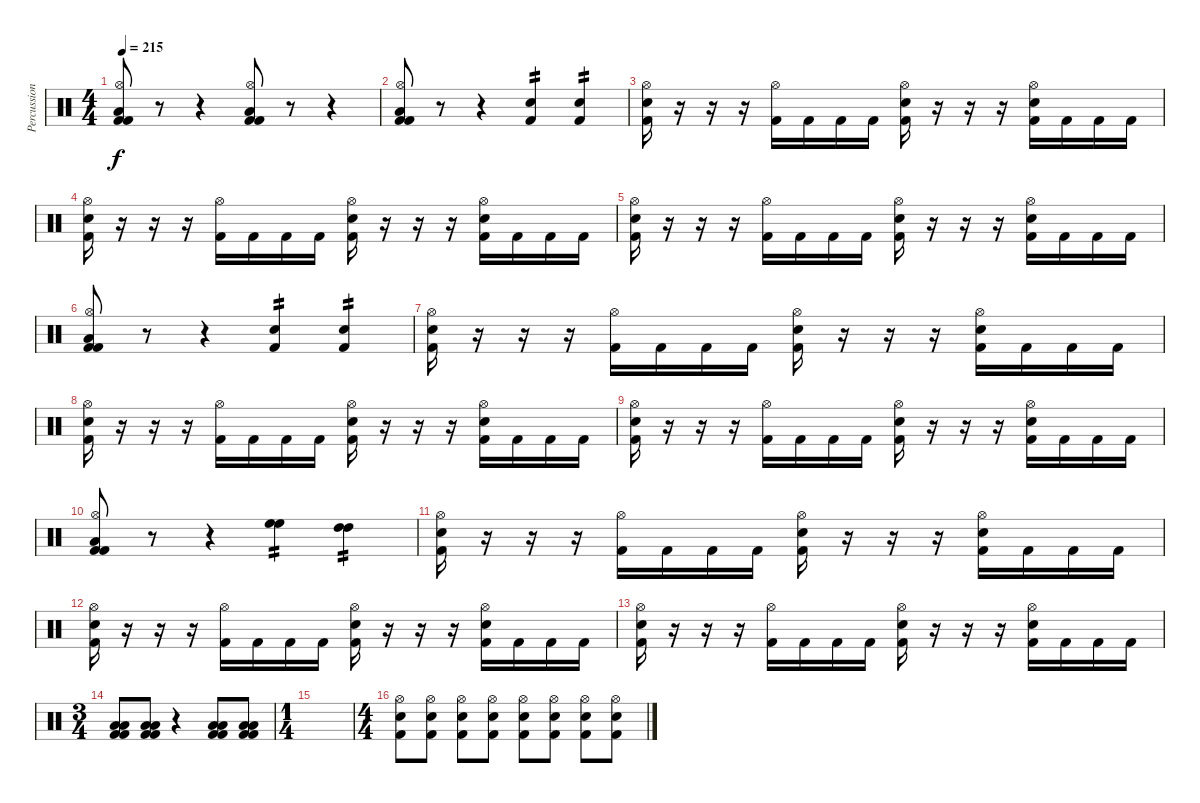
\track ("Percussion" "Percussion") {instrument percussion}
\staff {score}
\articulation defaults
\ts (4 4)
\tempo 215
\clef neutral
\ks c
("Low Floor Tom (hit)" "Hi-Hat (open)" "Kick (hit) 2" "Kick (hit) 2").8{dy f} r.8 r.4 ("Low Floor Tom (hit)" "Hi-Hat (open)" "Kick (hit) 2" "Kick (hit) 2").8 r.8 r.4 |
("Low Floor Tom (hit)" "Hi-Hat (open)" "Kick (hit) 2" "Kick (hit) 2").8 r.8 r.4 ("Electric Snare (hit)" "Kick (hit) 2").4{tp 2} ("Electric Snare (hit)" "Kick (hit) 2").4{tp 2} |
("Hi-Hat (open)" "Electric Snare (hit)" "Kick (hit) 2").16 r.16 r.16 r.16 ("Hi-Hat (open)" "Kick (hit) 2").16 "Kick (hit) 2".16 "Kick (hit) 2".16 "Kick (hit) 2".16 ("Hi-Hat (open)" "Electric Snare (hit)" "Kick (hit) 2").16 r.16 r.16 r.16 ("Hi-Hat (open)" "Electric Snare (hit)" "Kick (hit) 2").16 "Kick (hit) 2".16 "Kick (hit) 2".16 "Kick (hit) 2".16 |
("Hi-Hat (open)" "Electric Snare (hit)" "Kick (hit) 2").16 r.16 r.16 r.16 ("Hi-Hat (open)" "Kick (hit) 2").16 "Kick (hit) 2".16 "Kick (hit) 2".16 "Kick (hit) 2".16 ("Hi-Hat (open)" "Electric Snare (hit)" "Kick (hit) 2").16 r.16 r.16 r.16 ("Hi-Hat (open)" "Electric Snare (hit)" "Kick (hit) 2").16 "Kick (hit) 2".16 "Kick (hit) 2".16 "Kick (hit) 2".16 |
("Hi-Hat (open)" "Electric Snare (hit)" "Kick (hit) 2").16 r.16 r.16 r.16 ("Hi-Hat (open)" "Kick (hit) 2").16 "Kick (hit) 2".16 "Kick (hit) 2".16 "Kick (hit) 2".16 ("Hi-Hat (open)" "Electric Snare (hit)" "Kick (hit) 2").16 r.16 r.16 r.16 ("Hi-Hat (open)" "Electric Snare (hit)" "Kick (hit) 2").16 "Kick (hit) 2".16 "Kick (hit) 2".16 "Kick (hit) 2".16 |
("Low Floor Tom (hit)" "Hi-Hat (open)" "Kick (hit) 2" "Kick (hit) 2").8 r.8 r.4 ("Electric Snare (hit)" "Kick (hit) 2").4{tp 2} ("Electric Snare (hit)" "Kick (hit) 2").4{tp 2} |
("Hi-Hat (open)" "Electric Snare (hit)" "Kick (hit) 2").16 r.16 r.16 r.16 ("Hi-Hat (open)" "Kick (hit) 2").16 "Kick (hit) 2".16 "Kick (hit) 2".16 "Kick (hit) 2".16 ("Hi-Hat (open)" "Electric Snare (hit)" "Kick (hit) 2").16 r.16 r.16 r.16 ("Hi-Hat (open)" "Electric Snare (hit)" "Kick (hit) 2").16 "Kick (hit) 2".16 "Kick (hit) 2".16 "Kick (hit) 2".16 |
("Hi-Hat (open)" "Electric Snare (hit)" "Kick (hit) 2").16 r.16 r.16 r.16 ("Hi-Hat (open)" "Kick (hit) 2").16 "Kick (hit) 2".16 "Kick (hit) 2".16 "Kick (hit) 2".16 ("Hi-Hat (open)" "Electric Snare (hit)" "Kick (hit) 2").16 r.16 r.16 r.16 ("Hi-Hat (open)" "Electric Snare (hit)" "Kick (hit) 2").16 "Kick (hit) 2".16 "Kick (hit) 2".16 "Kick (hit) 2".16 |
("Hi-Hat (open)" "Electric Snare (hit)" "Kick (hit) 2").16 r.16 r.16 r.16 ("Hi-Hat (open)" "Kick (hit) 2").16 "Kick (hit) 2".16 "Kick (hit) 2".16 "Kick (hit) 2".16 ("Hi-Hat (open)" "Electric Snare (hit)" "Kick (hit) 2").16 r.16 r.16 r.16 ("Hi-Hat (open)" "Electric Snare (hit)" "Kick (hit) 2").16 "Kick (hit) 2".16 "Kick (hit) 2".16 "Kick (hit) 2".16 |
("Low Floor Tom (hit)" "Hi-Hat (open)" "Kick (hit) 2" "Kick (hit) 2").8 r.8 r.4 ("High Floor Tom (hit)" "High Floor Tom (hit)").4{tp 2} ("High Tom (hit)" "High Tom (hit)").4{tp 2} |
("Hi-Hat (open)" "Electric Snare (hit)" "Kick (hit) 2").16 r.16 r.16 r.16 ("Hi-Hat (open)" "Kick (hit) 2").16 "Kick (hit) 2".16 "Kick (hit) 2".16 "Kick (hit) 2".16 ("Hi-Hat (open)" "Electric Snare (hit)" "Kick (hit) 2").16 r.16 r.16 r.16 ("Hi-Hat (open)" "Electric Snare (hit)" "Kick (hit) 2").16 "Kick (hit) 2".16 "Kick (hit) 2".16 "Kick (hit) 2".16 |
("Hi-Hat (open)" "Electric Snare (hit)" "Kick (hit) 2").16 r.16 r.16 r.16 ("Hi-Hat (open)" "Kick (hit) 2").16 "Kick (hit) 2".16 "Kick (hit) 2".16 "Kick (hit) 2".16 ("Hi-Hat (open)" "Electric Snare (hit)" "Kick (hit) 2").16 r.16 r.16 r.16 ("Hi-Hat (open)" "Electric Snare (hit)" "Kick (hit) 2").16 "Kick (hit) 2".16 "Kick (hit) 2".16 "Kick (hit) 2".16 |
("Hi-Hat (open)" "Electric Snare (hit)" "Kick (hit) 2").16 r.16 r.16 r.16 ("Hi-Hat (open)" "Kick (hit) 2").16 "Kick (hit) 2".16 "Kick (hit) 2".16 "Kick (hit) 2".16 ("Hi-Hat (open)" "Electric Snare (hit)" "Kick (hit) 2").16 r.16 r.16 r.16 ("Hi-Hat (open)" "Electric Snare (hit)" "Kick (hit) 2").16 "Kick (hit) 2".16 "Kick (hit) 2".16 "Kick (hit) 2".16 |
\ts (3 4)
("Low Floor Tom (hit)" "Low Floor Tom (hit)" "Kick (hit) 2" "Kick (hit) 2").8 ("Low Floor Tom (hit)" "Low Floor Tom (hit)" "Kick (hit) 2" "Kick (hit) 2").8 r.4 ("Low Floor Tom (hit)" "Low Floor Tom (hit)" "Kick (hit) 2" "Kick (hit) 2").8 ("Low Floor Tom (hit)" "Low Floor Tom (hit)" "Kick (hit) 2" "Kick (hit) 2").8 |
\ts (1 4)
|
\ts (4 4)
("Hi-Hat (open)" "Electric Snare (hit)" "Kick (hit) 2").8 ("Hi-Hat (open)" "Electric Snare (hit)" "Kick (hit) 2").8 ("Hi-Hat (open)" "Electric Snare (hit)" "Kick (hit) 2").8 ("Hi-Hat (open)" "Electric Snare (hit)" "Kick (hit) 2").8 ("Hi-Hat (open)" "Electric Snare (hit)" "Kick (hit) 2").8 ("Hi-Hat (open)" "Electric Snare (hit)" "Kick (hit) 2").8 ("Hi-Hat (open)" "Electric Snare (hit)" "Kick (hit) 2").8 ("Hi-Hat (open)" "Electric Snare (hit)" "Kick (hit) 2").8
